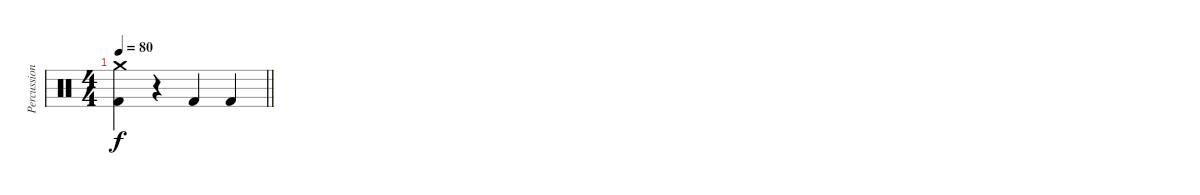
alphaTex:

\track ("Percussion" "Percussion") {instrument percussion}
\staff {score}
\articulation defaults
\ts (4 4)
\tempo 80
\clef neutral
\barLineRight lightlight
\ks c
("Crash medium (hit)" "Kick (hit) 2").4{dy f} r.4 "Kick (hit) 2".4 "Kick (hit) 2".4
